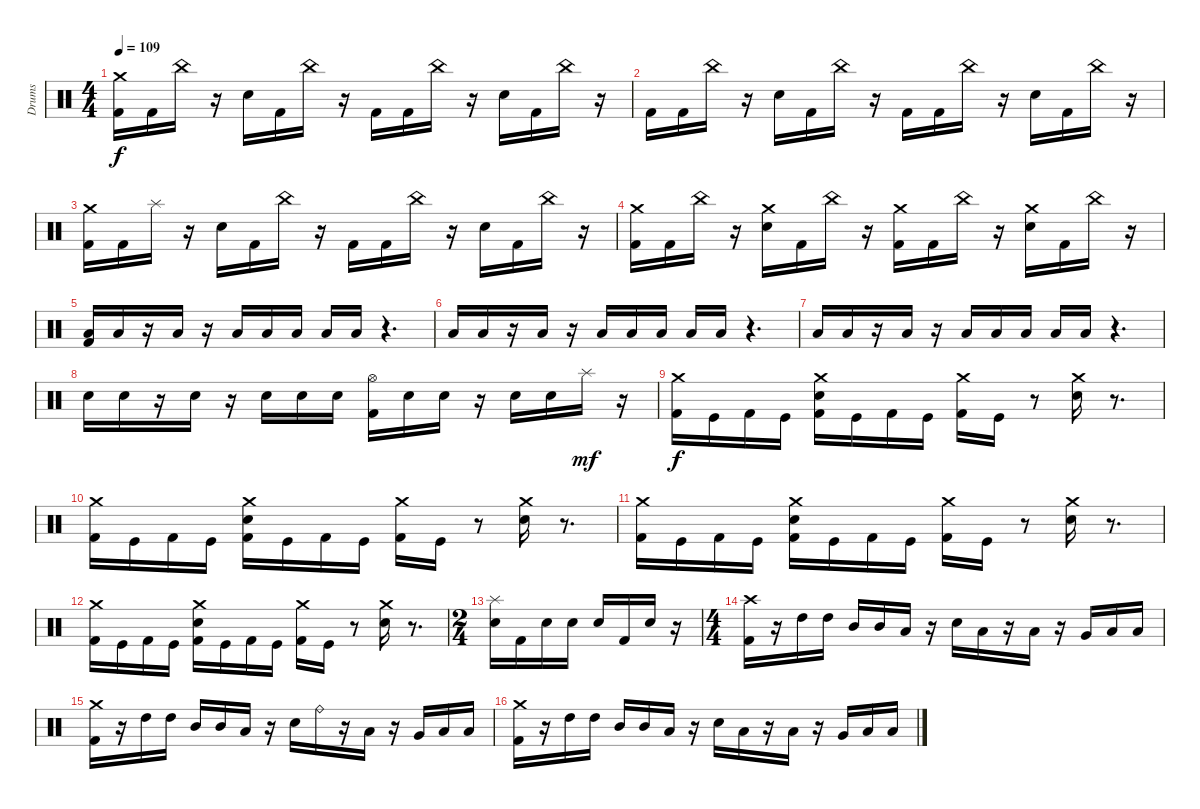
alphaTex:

\track ("Drums" "Drums") {instrument percussion}
\staff {score}
\articulation defaults
\ts (4 4)
\tempo 109
\clef neutral
\ks c
("Crash medium (hit)" "Kick (hit) 2").16{dy f} "Kick (hit) 2".16 "China (hit)".16 r.16 "Electric Snare (hit)".16 "Kick (hit) 2".16 "China (hit)".16 r.16 "Kick (hit) 2".16 "Kick (hit) 2".16 "China (hit)".16 r.16 "Electric Snare (hit)".16 "Kick (hit) 2".16 "China (hit)".16 r.16 |
"Kick (hit) 2".16 "Kick (hit) 2".16 "China (hit)".16 r.16 "Electric Snare (hit)".16 "Kick (hit) 2".16 "China (hit)".16 r.16 "Kick (hit) 2".16 "Kick (hit) 2".16 "China (hit)".16 r.16 "Electric Snare (hit)".16 "Kick (hit) 2".16 "China (hit)".16 r.16 |
("Crash medium (hit)" "Kick (hit) 2").16 "Kick (hit) 2".16 "Splash (hit)".16 r.16 "Electric Snare (hit)".16 "Kick (hit) 2".16 "China (hit)".16 r.16 "Kick (hit) 2".16 "Kick (hit) 2".16 "China (hit)".16 r.16 "Electric Snare (hit)".16 "Kick (hit) 2".16 "China (hit)".16 r.16 |
("Crash medium (hit)" "Kick (hit) 2").16 "Kick (hit) 2".16 "China (hit)".16 r.16 ("Crash medium (hit)" "Electric Snare (hit)").16 "Kick (hit) 2".16 "China (hit)".16 r.16 ("Crash medium (hit)" "Kick (hit) 2").16 "Kick (hit) 2".16 "China (hit)".16 r.16 ("Crash medium (hit)" "Electric Snare (hit)").16 "Kick (hit) 2".16 "China (hit)".16 r.16 |
("Kick (hit) 2" "Low Floor Tom (hit)").16 "Low Floor Tom (hit)".16 r.16 "Low Floor Tom (hit)".16 r.16 "Low Floor Tom (hit)".16 "Low Floor Tom (hit)".16 "Low Floor Tom (hit)".16 "Low Floor Tom (hit)".16 "Low Floor Tom (hit)".16 r.4{d} |
"Low Floor Tom (hit)".16 "Low Floor Tom (hit)".16 r.16 "Low Floor Tom (hit)".16 r.16 "Low Floor Tom (hit)".16 "Low Floor Tom (hit)".16 "Low Floor Tom (hit)".16 "Low Floor Tom (hit)".16 "Low Floor Tom (hit)".16 r.4{d} |
"Low Floor Tom (hit)".16 "Low Floor Tom (hit)".16 r.16 "Low Floor Tom (hit)".16 r.16 "Low Floor Tom (hit)".16 "Low Floor Tom (hit)".16 "Low Floor Tom (hit)".16 "Low Floor Tom (hit)".16 "Low Floor Tom (hit)".16 r.4{d} |
"Electric Snare (hit)".16 "Electric Snare (hit)".16 r.16 "Electric Snare (hit)".16 r.16 "Electric Snare (hit)".16 "Electric Snare (hit)".16 "Electric Snare (hit)".16 ("Hi-Hat (open)" "Kick (hit) 2").16 "Electric Snare (hit)".16 "Electric Snare (hit)".16 r.16 "Electric Snare (hit)".16 "Electric Snare (hit)".16 "Splash (hit)".16{dy mf} r.16 |
("Crash medium (hit)" "Kick (hit) 2").16{dy f} "Kick (hit)".16 "Kick (hit) 2".16 "Kick (hit)".16 ("Crash medium (hit)" "Kick (hit) 2" "Electric Snare (hit)").16 "Kick (hit)".16 "Kick (hit) 2".16 "Kick (hit)".16 ("Crash medium (hit)" "Kick (hit) 2").16 "Kick (hit)".16 r.8 ("Crash medium (hit)" "Electric Snare (hit)").16 r.8{d} |
("Crash medium (hit)" "Kick (hit) 2").16 "Kick (hit)".16 "Kick (hit) 2".16 "Kick (hit)".16 ("Crash medium (hit)" "Kick (hit) 2" "Electric Snare (hit)").16 "Kick (hit)".16 "Kick (hit) 2".16 "Kick (hit)".16 ("Crash medium (hit)" "Kick (hit) 2").16 "Kick (hit)".16 r.8 ("Crash medium (hit)" "Electric Snare (hit)").16 r.8{d} |
("Crash medium (hit)" "Kick (hit) 2").16 "Kick (hit)".16 "Kick (hit) 2".16 "Kick (hit)".16 ("Crash medium (hit)" "Kick (hit) 2" "Electric Snare (hit)").16 "Kick (hit)".16 "Kick (hit) 2".16 "Kick (hit)".16 ("Crash medium (hit)" "Kick (hit) 2").16 "Kick (hit)".16 r.8 ("Crash medium (hit)" "Electric Snare (hit)").16 r.8{d} |
("Crash medium (hit)" "Kick (hit) 2").16 "Kick (hit)".16 "Kick (hit) 2".16 "Kick (hit)".16 ("Crash medium (hit)" "Kick (hit) 2" "Electric Snare (hit)").16 "Kick (hit)".16 "Kick (hit) 2".16 "Kick (hit)".16 ("Crash medium (hit)" "Kick (hit) 2").16 "Kick (hit)".16 r.8 ("Crash medium (hit)" "Electric Snare (hit)").16 r.8{d} |
\ts (2 4)
("Splash (hit)" "Electric Snare (hit)").16 "Kick (hit) 2".16 "Electric Snare (hit)".16 "Electric Snare (hit)".16 "Electric Snare (hit)".16 "Kick (hit) 2".16 "Electric Snare (hit)".16 r.16 |
\ts (4 4)
("Kick (hit) 2" "Crash high (hit)").16 r.16 "High Tom (hit)".16 "High Tom (hit)".16 "Mid Tom (hit)".16 "Mid Tom (hit)".16 "Low Tom (hit)".16 r.16 "Electric Snare (hit)".16 "Low Tom (hit)".16 r.16 "Low Tom (hit)".16 r.16 "Very Low Tom (hit)".16 "Low Floor Tom (hit)".16 "Low Floor Tom (hit)".16 |
("Kick (hit) 2" "Crash medium (hit)").16 r.16 "High Tom (hit)".16 "High Tom (hit)".16 "Mid Tom (hit)".16 "Mid Tom (hit)".16 "Low Tom (hit)".16 r.16 "Electric Snare (hit)".16 "Ride (bell)".16 r.16 "Low Tom (hit)".16 r.16 "Very Low Tom (hit)".16 "Low Floor Tom (hit)".16 "Low Floor Tom (hit)".16 |
("Kick (hit) 2" "Crash medium (hit)").16 r.16 "High Tom (hit)".16 "High Tom (hit)".16 "Mid Tom (hit)".16 "Mid Tom (hit)".16 "Low Tom (hit)".16 r.16 "Electric Snare (hit)".16 "Low Tom (hit)".16 r.16 "Low Tom (hit)".16 r.16 "Very Low Tom (hit)".16 "Low Floor Tom (hit)".16 "Low Floor Tom (hit)".16
